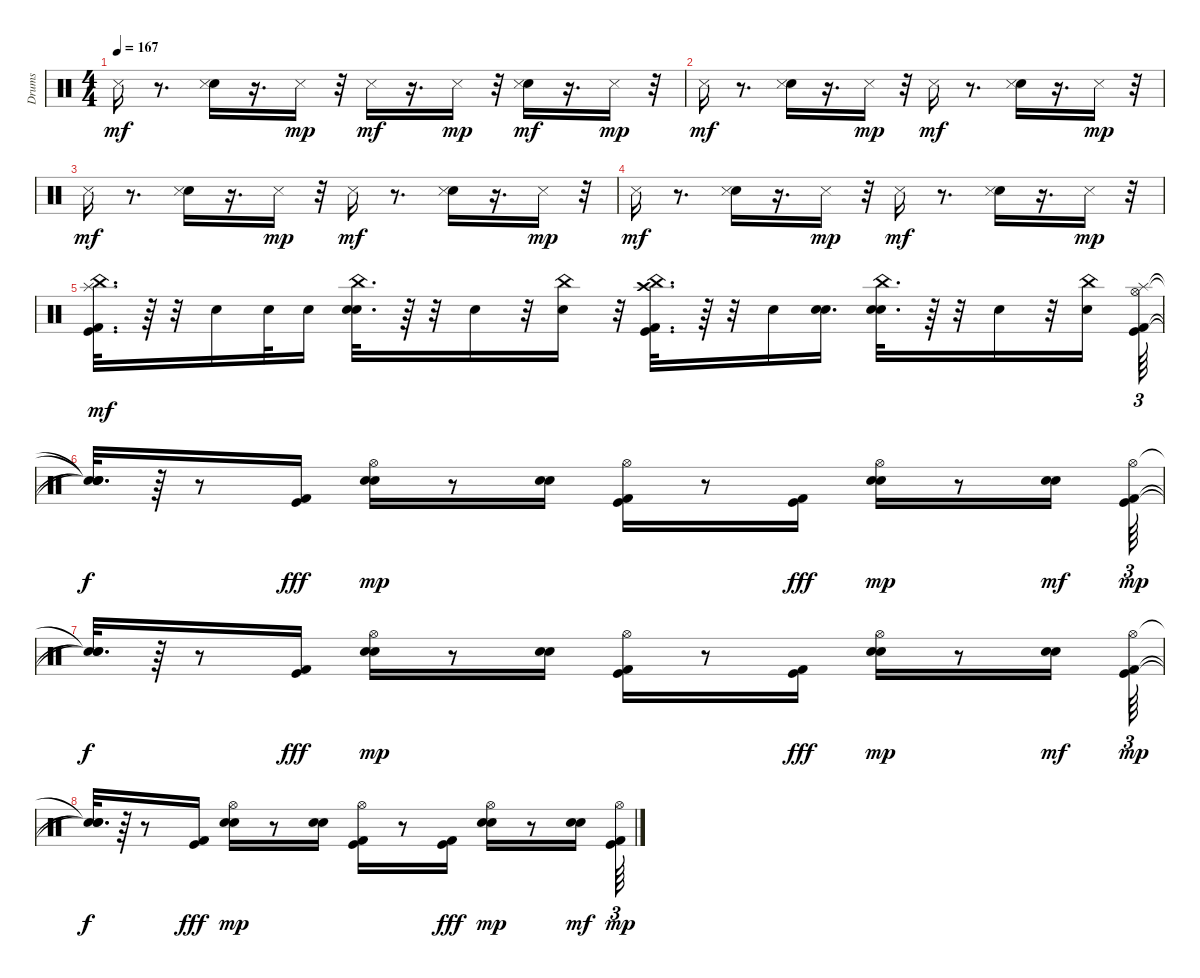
\track ("Drums" "Drums") {instrument percussion}
\staff {score}
\articulation defaults
\ts (4 4)
\tempo 167
\clef neutral
\ks c "Snare (side stick) 3".16{dy mf}
r.8{d} ("Hand Clap (hit)" "Snare (side stick) 3").16 r.16{d} "Snare (side stick) 3".16{dy mp} r.32 "Snare (side stick) 3".16{dy mf} r.16{d} "Snare (side stick) 3".16{dy mp} r.32 ("Hand Clap (hit)" "Snare (side stick) 3").16{dy mf} r.16{d} "Snare (side stick) 3".16{dy mp} r.32 |
"Snare (side stick) 3".16{dy mf} r.8{d} ("Hand Clap (hit)" "Snare (side stick) 3").16 r.16{d} "Snare (side stick) 3".16{dy mp} r.32 "Snare (side stick) 3".16{dy mf} r.8{d} ("Hand Clap (hit)" "Snare (side stick) 3").16 r.16{d} "Snare (side stick) 3".16{dy mp} r.32 |
"Snare (side stick) 3".16{dy mf} r.8{d} ("Hand Clap (hit)" "Snare (side stick) 3").16 r.16{d} "Snare (side stick) 3".16{dy mp} r.32 "Snare (side stick) 3".16{dy mf} r.8{d} ("Hand Clap (hit)" "Snare (side stick) 3").16 r.16{d} "Snare (side stick) 3".16{dy mp} r.32 |
"Snare (side stick) 3".16{dy mf} r.8{d} ("Hand Clap (hit)" "Snare (side stick) 3").16 r.16{d} "Snare (side stick) 3".16{dy mp} r.32 "Snare (side stick) 3".16{dy mf} r.8{d} ("Hand Clap (hit)" "Snare (side stick) 3").16 r.16{d} "Snare (side stick) 3".16{dy mp} r.32 |
("Kick (hit) 2" "Kick (hit)" "China (hit)" "Splash (hit)").32{d dy mf} r.64 r.32 "Snare (hit) 2".16 "Snare (hit) 2".32 "Snare (hit) 2".16 ("Snare (hit) 2" "China (hit)" "Hand Clap (hit)").32{d} r.64 r.32 "Snare (hit) 2".16 r.32 ("China (hit)" "Snare (hit) 2").16 r.32 ("China (hit)" "Kick (hit) 2" "Kick (hit)" "Crash high (hit)").32{d} r.64 r.32 "Snare (hit) 2".16 ("Snare (hit) 2" "Snare (hit) 2").16{d} ("China (hit)" "Hand Clap (hit)" "Snare (hit) 2").32{d} r.64 r.32 "Snare (hit) 2".16 r.32 ("China (hit)" "Snare (hit) 2").16 ("Kick (hit) 2" "Kick (hit)" "Hi-Hat (open)" "Splash (hit)").64{tu (3 2)} |
("Snare (hit)"{t} "Snare (hit)"{t} "Snare (hit)"{t} "Snare (hit)"{t}).32{d dy f} r.64 r.8 ("Kick (hit) 2" "Kick (hit)").16{dy fff} ("Snare (hit) 2" "Hand Clap (hit)" "Hi-Hat (open)").16{dy mp} r.8 ("Snare (hit) 2" "Hand Clap (hit)").16 ("Kick (hit) 2" "Kick (hit)" "Hi-Hat (open)").16 r.8 ("Kick (hit) 2" "Kick (hit)").16{dy fff} ("Snare (hit) 2" "Hand Clap (hit)" "Hi-Hat (open)").16{dy mp} r.8 ("Snare (hit) 2" "Hand Clap (hit)").16{dy mf} ("Kick (hit) 2" "Kick (hit)" "Hi-Hat (open)").64{tu (3 2) dy mp} |
("Snare (hit)"{t} "Snare (hit)"{t} "Snare (hit)"{t}).32{d dy f} r.64 r.8 ("Kick (hit) 2" "Kick (hit)").16{dy fff} ("Snare (hit) 2" "Hand Clap (hit)" "Hi-Hat (open)").16{dy mp} r.8 ("Snare (hit) 2" "Hand Clap (hit)").16 ("Kick (hit) 2" "Kick (hit)" "Hi-Hat (open)").16 r.8 ("Kick (hit) 2" "Kick (hit)").16{dy fff} ("Snare (hit) 2" "Hand Clap (hit)" "Hi-Hat (open)").16{dy mp} r.8 ("Snare (hit) 2" "Hand Clap (hit)").16{dy mf} ("Kick (hit) 2" "Kick (hit)" "Hi-Hat (open)").64{tu (3 2) dy mp} |
("Snare (hit)"{t} "Snare (hit)"{t} "Snare (hit)"{t}).32{d dy f} r.64 r.8 ("Kick (hit) 2" "Kick (hit)").16{dy fff} ("Snare (hit) 2" "Hand Clap (hit)" "Hi-Hat (open)").16{dy mp} r.8 ("Snare (hit) 2" "Hand Clap (hit)").16 ("Kick (hit) 2" "Kick (hit)" "Hi-Hat (open)").16 r.8 ("Kick (hit) 2" "Kick (hit)").16{dy fff} ("Snare (hit) 2" "Hand Clap (hit)" "Hi-Hat (open)").16{dy mp} r.8 ("Snare (hit) 2" "Hand Clap (hit)").16{dy mf} ("Kick (hit) 2" "Kick (hit)" "Hi-Hat (open)").64{tu (3 2) dy mp}
